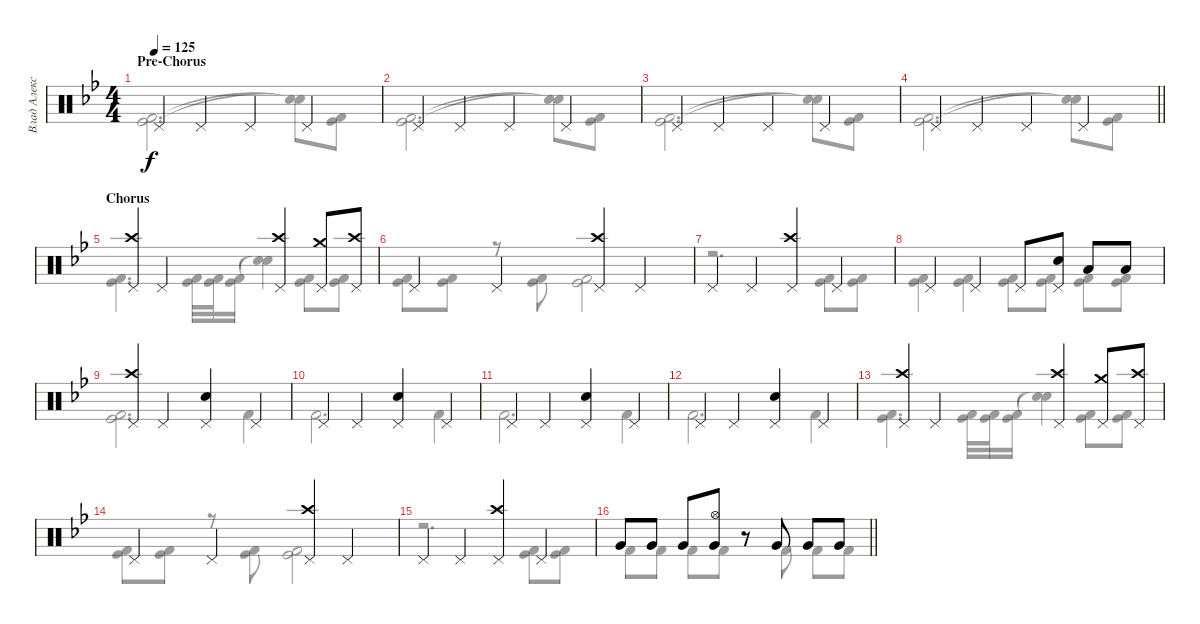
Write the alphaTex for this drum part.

\track ("Влад Алексеенко" "Влад Алекс") {instrument percussion}
\staff {score}
\articulation defaults
\voice
\ts (4 4)
\section ("" "Pre-Chorus")
\tempo 125
\clef neutral
\ks bb "Pedal Hi-Hat (hit)".4{dy f} "Pedal Hi-Hat (hit)".4 "Pedal Hi-Hat (hit)".4 "Pedal Hi-Hat (hit)".4
|
"Pedal Hi-Hat (hit)".4 "Pedal Hi-Hat (hit)".4 "Pedal Hi-Hat (hit)".4 "Pedal Hi-Hat (hit)".4 |
"Pedal Hi-Hat (hit)".4 "Pedal Hi-Hat (hit)".4 "Pedal Hi-Hat (hit)".4 "Pedal Hi-Hat (hit)".4 |
\barLineRight lightlight "Pedal Hi-Hat (hit)".4 "Pedal Hi-Hat (hit)".4 "Pedal Hi-Hat (hit)".4 "Pedal Hi-Hat (hit)".4
|
\section ("" "Chorus")
("Pedal Hi-Hat (hit)" "Crash high (hit)").4 "Pedal Hi-Hat (hit)".4 ("Pedal Hi-Hat (hit)" "Crash high (hit)").4 ("Pedal Hi-Hat (hit)" "Crash medium (hit)").8 ("Pedal Hi-Hat (hit)" "Crash high (hit)").8 |
"Pedal Hi-Hat (hit)".4 "Pedal Hi-Hat (hit)".4 ("Pedal Hi-Hat (hit)" "Crash high (hit)").4 "Pedal Hi-Hat (hit)".4 |
"Pedal Hi-Hat (hit)".4 "Pedal Hi-Hat (hit)".4 ("Pedal Hi-Hat (hit)" "Crash high (hit)").4 "Pedal Hi-Hat (hit)".4 |
"Pedal Hi-Hat (hit)".4 "Pedal Hi-Hat (hit)".4 "Pedal Hi-Hat (hit)".8 ("Snare (hit) 2" "Pedal Hi-Hat (hit)").8 "Low Tom (hit)".8 "Low Tom (hit)".8 |
("Pedal Hi-Hat (hit)" "Crash high (hit)").4 "Pedal Hi-Hat (hit)".4 ("Snare (hit) 2" "Pedal Hi-Hat (hit)").4 "Pedal Hi-Hat (hit)".4 |
"Pedal Hi-Hat (hit)".4 "Pedal Hi-Hat (hit)".4 ("Snare (hit) 2" "Pedal Hi-Hat (hit)").4 "Pedal Hi-Hat (hit)".4 |
"Pedal Hi-Hat (hit)".4 "Pedal Hi-Hat (hit)".4 ("Snare (hit) 2" "Pedal Hi-Hat (hit)").4 "Pedal Hi-Hat (hit)".4 |
"Pedal Hi-Hat (hit)".4 "Pedal Hi-Hat (hit)".4 ("Snare (hit) 2" "Pedal Hi-Hat (hit)").4 "Pedal Hi-Hat (hit)".4 |
("Pedal Hi-Hat (hit)" "Crash high (hit)").4 "Pedal Hi-Hat (hit)".4 ("Pedal Hi-Hat (hit)" "Crash high (hit)").4 ("Pedal Hi-Hat (hit)" "Crash medium (hit)").8 ("Pedal Hi-Hat (hit)" "Crash high (hit)").8 |
"Pedal Hi-Hat (hit)".4 "Pedal Hi-Hat (hit)".4 ("Pedal Hi-Hat (hit)" "Crash high (hit)").4 "Pedal Hi-Hat (hit)".4 |
"Pedal Hi-Hat (hit)".4 "Pedal Hi-Hat (hit)".4 ("Pedal Hi-Hat (hit)" "Crash high (hit)").4 "Pedal Hi-Hat (hit)".4 |
\barLineRight lightlight "Very Low Tom (hit)".8 "Very Low Tom (hit)".8 "Very Low Tom (hit)".8
("Very Low Tom (hit)" "Hi-Hat (open)").8 r.8 "Very Low Tom (hit)".8 "Very Low Tom (hit)".8 "Very Low Tom (hit)".8
\voice
\clef neutral
\ottava regular
\simile none
\ks bb
("Kick (hit)" "Kick (hit) 2").2{d dy f} ("Snare (hit)"{t} "Snare (hit)"{t}).8 ("Kick (hit)" "Kick (hit) 2").8 |
("Kick (hit)" "Kick (hit) 2").2{d} ("Snare (hit)"{t} "Snare (hit)"{t}).8 ("Kick (hit)" "Kick (hit) 2").8 |
("Kick (hit)" "Kick (hit) 2").2{d} ("Snare (hit)"{t} "Snare (hit)"{t}).8 ("Kick (hit)" "Kick (hit) 2").8 |
\barLineRight lightlight
("Kick (hit)" "Kick (hit) 2").2{d} ("Snare (hit)"{t} "Snare (hit)"{t}).8 ("Kick (hit)" "Kick (hit) 2").8 |
("Kick (hit)" "Kick (hit) 2").4{d} ("Kick (hit)" "Kick (hit) 2").32 ("Kick (hit)" "Kick (hit) 2").32 ("Kick (hit)" "Kick (hit) 2").16 ("Snare (hit)"{t} "Snare (hit)"{t}).4 ("Kick (hit)" "Kick (hit) 2").8 ("Kick (hit)" "Kick (hit) 2").8 |
("Kick (hit)" "Kick (hit) 2").8 ("Kick (hit)" "Kick (hit) 2").8 r.8 ("Kick (hit)" "Kick (hit) 2").8 ("Kick (hit)" "Kick (hit) 2").2 |
r.2{d} ("Kick (hit)" "Kick (hit) 2").8 ("Kick (hit)" "Kick (hit) 2").8 |
("Kick (hit)" "Kick (hit) 2").4 ("Kick (hit)" "Kick (hit) 2").4 ("Kick (hit)" "Kick (hit) 2").8 ("Kick (hit)" "Kick (hit) 2").8 ("Kick (hit)" "Kick (hit) 2").8 ("Kick (hit)" "Kick (hit) 2").8 |
("Kick (hit)" "Kick (hit) 2").2{d} "Kick (hit) 2".4 |
"Kick (hit) 2".2{d} "Kick (hit) 2".4 |
"Kick (hit) 2".2{d} "Kick (hit) 2".4 |
"Kick (hit) 2".2{d} "Kick (hit) 2".4 |
("Kick (hit)" "Kick (hit) 2").4{d} ("Kick (hit)" "Kick (hit) 2").32 ("Kick (hit)" "Kick (hit) 2").32 ("Kick (hit)" "Kick (hit) 2").16 ("Snare (hit)"{t} "Snare (hit)"{t}).4 ("Kick (hit)" "Kick (hit) 2").8 ("Kick (hit)" "Kick (hit) 2").8 |
("Kick (hit)" "Kick (hit) 2").8 ("Kick (hit)" "Kick (hit) 2").8 r.8 ("Kick (hit)" "Kick (hit) 2").8 ("Kick (hit)" "Kick (hit) 2").2 |
r.2{d} ("Kick (hit)" "Kick (hit) 2").8 ("Kick (hit)" "Kick (hit) 2").8 |
\barLineRight lightlight "Kick (hit) 2".8 "Kick (hit) 2".8 "Kick (hit) 2".8 "Kick (hit) 2".8
r.8 "Kick (hit) 2".8 "Kick (hit) 2".8 "Kick (hit) 2".8
